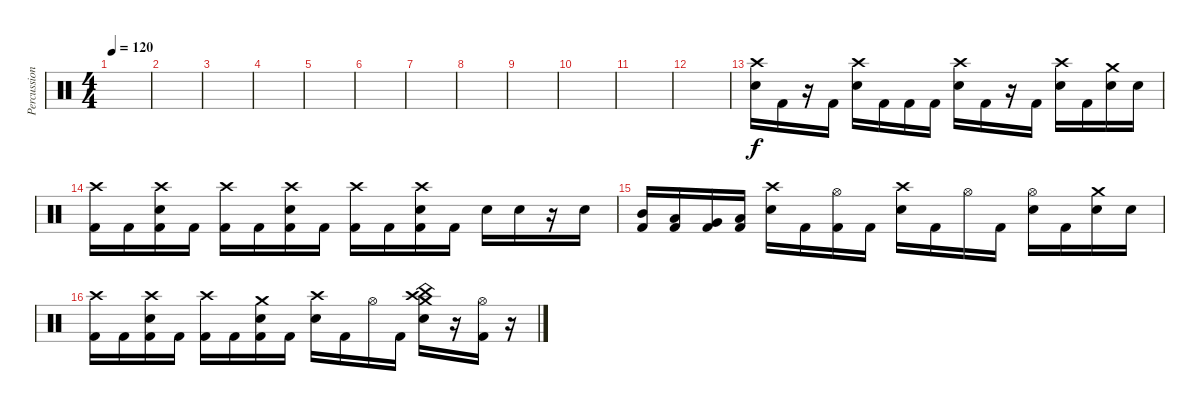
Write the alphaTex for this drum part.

\track ("Percussion" "Percussion") {instrument percussion}
\staff {score}
\articulation defaults
\ts (4 4)
\tempo 120
\clef neutral
\ks c
|
|
|
|
|
|
|
|
|
|
|
|
("Crash high (hit)" "Snare (hit) 2").16 "Kick (hit) 2".16 r.16 "Kick (hit) 2".16 ("Crash high (hit)" "Snare (hit) 2").16 "Kick (hit) 2".16 "Kick (hit) 2".16 "Kick (hit) 2".16 ("Crash high (hit)" "Snare (hit) 2").16 "Kick (hit) 2".16 r.16 "Kick (hit) 2".16 ("Crash high (hit)" "Snare (hit) 2").16 "Kick (hit) 2".16 ("Crash medium (hit)" "Snare (hit) 2").16 "Snare (hit) 2".16 |
("Crash high (hit)" "Kick (hit) 2").16 "Kick (hit) 2".16 ("Crash high (hit)" "Snare (hit) 2" "Kick (hit) 2").16 "Kick (hit) 2".16 ("Crash high (hit)" "Kick (hit) 2").16 "Kick (hit) 2".16 ("Crash high (hit)" "Snare (hit) 2" "Kick (hit) 2").16 "Kick (hit) 2".16 ("Crash high (hit)" "Kick (hit) 2").16 "Kick (hit) 2".16 ("Crash high (hit)" "Snare (hit) 2" "Kick (hit) 2").16 "Kick (hit) 2".16 "Snare (hit) 2".16 "Snare (hit) 2".16 r.16 "Snare (hit) 2".16 |
("Mid Tom (hit)" "Kick (hit) 2").16 ("Low Tom (hit)" "Kick (hit) 2").16 ("Very Low Tom (hit)" "Kick (hit) 2").16 ("Low Floor Tom (hit)" "Kick (hit) 2").16 ("Crash high (hit)" "Snare (hit) 2").16 "Kick (hit) 2".16 ("Hi-Hat (open)" "Kick (hit) 2").16 "Kick (hit) 2".16 ("Crash high (hit)" "Snare (hit) 2").16 "Kick (hit) 2".16 "Hi-Hat (open)".16 "Kick (hit) 2".16 ("Hi-Hat (open)" "Snare (hit) 2").16 "Kick (hit) 2".16 ("Crash medium (hit)" "Snare (hit) 2").16 "Snare (hit) 2".16 |
("Crash high (hit)" "Kick (hit) 2").16 "Kick (hit) 2".16 ("Crash high (hit)" "Snare (hit) 2" "Kick (hit) 2").16 "Kick (hit) 2".16 ("Crash high (hit)" "Kick (hit) 2").16 "Kick (hit) 2".16 ("Crash medium (hit)" "Snare (hit) 2" "Kick (hit) 2").16 "Kick (hit) 2".16 ("Crash high (hit)" "Snare (hit) 2").16 "Kick (hit) 2".16 "Hi-Hat (open)".16 "Kick (hit) 2".16 ("Crash high (hit)" "Crash medium (hit)" "China (hit)" "Snare (hit) 2").16 r.16 ("Hi-Hat (open)" "Kick (hit) 2").16 r.16
